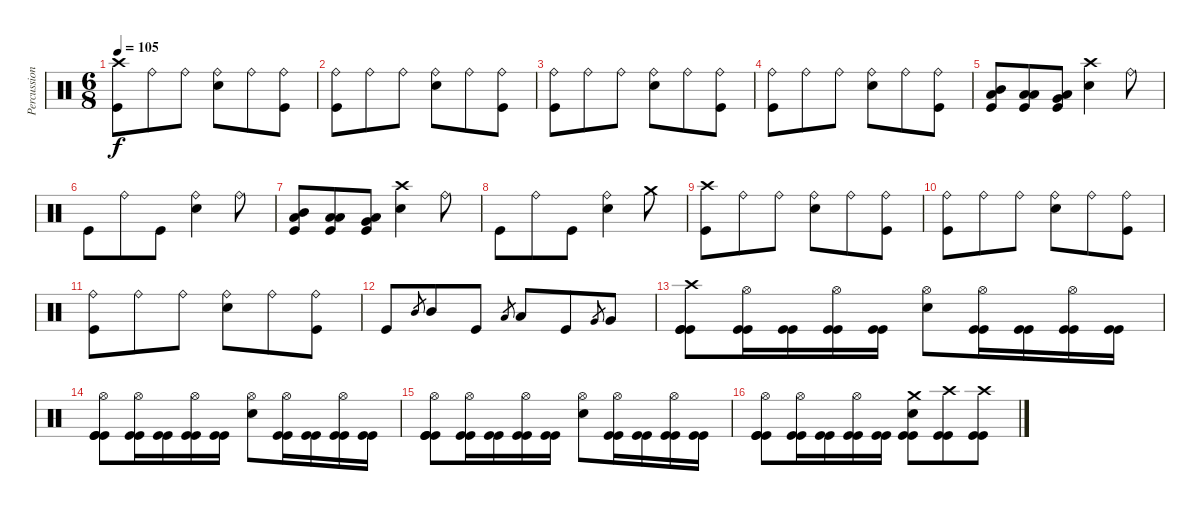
\track ("Percussions" "Percussion") {instrument percussion}
\staff {score}
\articulation defaults
\ts (6 8)
\tempo 105
\clef neutral
\ks c
("Kick (hit)" "Crash high (hit)").8{dy f} "Ride (bell)".8 "Ride (bell)".8 ("Snare (hit) 2" "Ride (bell)").8 "Ride (bell)".8 ("Kick (hit)" "Ride (bell)").8 |
("Kick (hit)" "Ride (bell)").8 "Ride (bell)".8 "Ride (bell)".8 ("Snare (hit) 2" "Ride (bell)").8 "Ride (bell)".8 ("Kick (hit)" "Ride (bell)").8 |
("Kick (hit)" "Ride (bell)").8 "Ride (bell)".8 "Ride (bell)".8 ("Snare (hit) 2" "Ride (bell)").8 "Ride (bell)".8 ("Kick (hit)" "Ride (bell)").8 |
("Kick (hit)" "Ride (bell)").8 "Ride (bell)".8 "Ride (bell)".8 ("Snare (hit) 2" "Ride (bell)").8 "Ride (bell)".8 ("Kick (hit)" "Ride (bell)").8 |
("Low Floor Tom (hit)" "Kick (hit)" "Mid Tom (hit)").8 ("Low Floor Tom (hit)" "Kick (hit)" "Low Tom (hit)").8 ("Low Floor Tom (hit)" "Kick (hit)" "Very Low Tom (hit)").8 ("Crash high (hit)" "Snare (hit) 2").4 "Ride (bell)".8 |
"Kick (hit)".8 "Ride (bell)".8 "Kick (hit)".8 ("Snare (hit) 2" "Ride (bell)").4 "Ride (bell)".8 |
("Low Floor Tom (hit)" "Kick (hit)" "Mid Tom (hit)").8 ("Low Floor Tom (hit)" "Kick (hit)" "Low Tom (hit)").8 ("Low Floor Tom (hit)" "Kick (hit)" "Very Low Tom (hit)").8 ("Crash high (hit)" "Snare (hit) 2").4 "Ride (bell)".8 |
"Kick (hit)".8 "Ride (bell)".8 "Kick (hit)".8 ("Snare (hit) 2" "Ride (bell)").4 "Crash medium (hit)".8 |
("Kick (hit)" "Crash high (hit)").8 "Ride (bell)".8 "Ride (bell)".8 ("Snare (hit) 2" "Ride (bell)").8 "Ride (bell)".8 ("Kick (hit)" "Ride (bell)").8 |
("Kick (hit)" "Ride (bell)").8 "Ride (bell)".8 "Ride (bell)".8 ("Snare (hit) 2" "Ride (bell)").8 "Ride (bell)".8 ("Kick (hit)" "Ride (bell)").8 |
("Kick (hit)" "Ride (bell)").8 "Ride (bell)".8 "Ride (bell)".8 ("Snare (hit) 2" "Ride (bell)").8 "Ride (bell)".8 ("Kick (hit)" "Ride (bell)").8 |
"Kick (hit)".8 "Mid Tom (hit)".8{gr} "Mid Tom (hit)".8 "Kick (hit)".8 "Low Tom (hit)".8{gr} "Low Tom (hit)".8 "Kick (hit)".8 "Very Low Tom (hit)".8{gr} "Very Low Tom (hit)".8 |
("Kick (hit)" "Kick (hit)" "Kick (hit)" "Crash high (hit)").8 ("Kick (hit)" "Kick (hit)" "Hi-Hat (open)").16 ("Kick (hit)" "Kick (hit)").16 ("Kick (hit)" "Kick (hit)" "Hi-Hat (open)").16 ("Kick (hit)" "Kick (hit)").16 ("Snare (hit) 2" "Hi-Hat (open)").8 ("Kick (hit)" "Kick (hit)" "Hi-Hat (open)").16 ("Kick (hit)" "Kick (hit)").16 ("Kick (hit)" "Kick (hit)" "Hi-Hat (open)").16 ("Kick (hit)" "Kick (hit)").16 |
("Kick (hit)" "Kick (hit)" "Kick (hit)" "Hi-Hat (open)").8 ("Kick (hit)" "Kick (hit)" "Hi-Hat (open)").16 ("Kick (hit)" "Kick (hit)").16 ("Kick (hit)" "Kick (hit)" "Hi-Hat (open)").16 ("Kick (hit)" "Kick (hit)").16 ("Snare (hit) 2" "Hi-Hat (open)").8 ("Kick (hit)" "Kick (hit)" "Hi-Hat (open)").16 ("Kick (hit)" "Kick (hit)").16 ("Kick (hit)" "Kick (hit)" "Hi-Hat (open)").16 ("Kick (hit)" "Kick (hit)").16 |
("Kick (hit)" "Kick (hit)" "Kick (hit)" "Hi-Hat (open)").8 ("Kick (hit)" "Kick (hit)" "Hi-Hat (open)").16 ("Kick (hit)" "Kick (hit)").16 ("Kick (hit)" "Kick (hit)" "Hi-Hat (open)").16 ("Kick (hit)" "Kick (hit)").16 ("Snare (hit) 2" "Hi-Hat (open)").8 ("Kick (hit)" "Kick (hit)" "Hi-Hat (open)").16 ("Kick (hit)" "Kick (hit)").16 ("Kick (hit)" "Kick (hit)" "Hi-Hat (open)").16 ("Kick (hit)" "Kick (hit)").16 |
("Kick (hit)" "Kick (hit)" "Kick (hit)" "Hi-Hat (open)").8 ("Kick (hit)" "Kick (hit)" "Hi-Hat (open)").16 ("Kick (hit)" "Kick (hit)").16 ("Kick (hit)" "Kick (hit)" "Hi-Hat (open)").16 ("Kick (hit)" "Kick (hit)").16 ("Snare (hit) 2" "Kick (hit)" "Kick (hit)" "Crash medium (hit)").8 ("Kick (hit)" "Kick (hit)" "Crash high (hit)").8 ("Kick (hit)" "Kick (hit)" "Crash high (hit)").8
